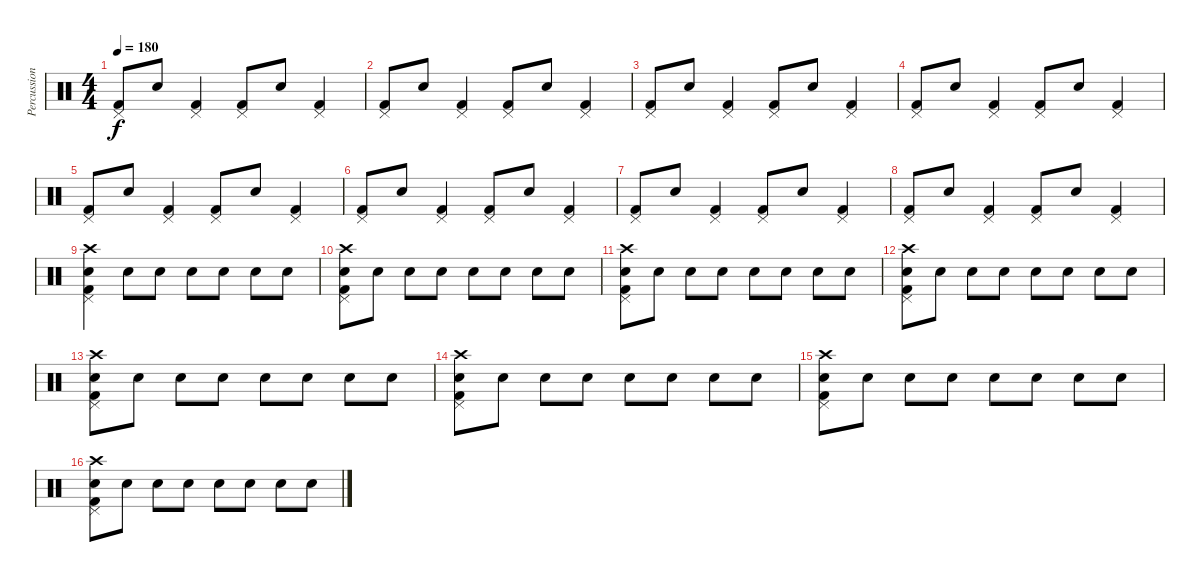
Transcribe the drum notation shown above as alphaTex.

\track ("Percussion" "Percussion") {instrument percussion}
\staff {score}
\articulation defaults
\ts (4 4)
\tempo 180
\clef neutral
\ks c
("Pedal Hi-Hat (hit)" "Kick (hit) 2").8{dy f} "Electric Snare (hit)".8 ("Pedal Hi-Hat (hit)" "Kick (hit) 2").4 ("Pedal Hi-Hat (hit)" "Kick (hit) 2").8 "Electric Snare (hit)".8 ("Pedal Hi-Hat (hit)" "Kick (hit) 2").4 |
("Pedal Hi-Hat (hit)" "Kick (hit) 2").8 "Electric Snare (hit)".8 ("Pedal Hi-Hat (hit)" "Kick (hit) 2").4 ("Pedal Hi-Hat (hit)" "Kick (hit) 2").8 "Electric Snare (hit)".8 ("Pedal Hi-Hat (hit)" "Kick (hit) 2").4 |
("Pedal Hi-Hat (hit)" "Kick (hit) 2").8 "Electric Snare (hit)".8 ("Pedal Hi-Hat (hit)" "Kick (hit) 2").4 ("Pedal Hi-Hat (hit)" "Kick (hit) 2").8 "Electric Snare (hit)".8 ("Pedal Hi-Hat (hit)" "Kick (hit) 2").4 |
("Pedal Hi-Hat (hit)" "Kick (hit) 2").8 "Electric Snare (hit)".8 ("Pedal Hi-Hat (hit)" "Kick (hit) 2").4 ("Pedal Hi-Hat (hit)" "Kick (hit) 2").8 "Electric Snare (hit)".8 ("Pedal Hi-Hat (hit)" "Kick (hit) 2").4 |
("Pedal Hi-Hat (hit)" "Kick (hit) 2").8 "Electric Snare (hit)".8 ("Pedal Hi-Hat (hit)" "Kick (hit) 2").4 ("Pedal Hi-Hat (hit)" "Kick (hit) 2").8 "Electric Snare (hit)".8 ("Pedal Hi-Hat (hit)" "Kick (hit) 2").4 |
("Pedal Hi-Hat (hit)" "Kick (hit) 2").8 "Electric Snare (hit)".8 ("Pedal Hi-Hat (hit)" "Kick (hit) 2").4 ("Pedal Hi-Hat (hit)" "Kick (hit) 2").8 "Electric Snare (hit)".8 ("Pedal Hi-Hat (hit)" "Kick (hit) 2").4 |
("Pedal Hi-Hat (hit)" "Kick (hit) 2").8 "Electric Snare (hit)".8 ("Pedal Hi-Hat (hit)" "Kick (hit) 2").4 ("Pedal Hi-Hat (hit)" "Kick (hit) 2").8 "Electric Snare (hit)".8 ("Pedal Hi-Hat (hit)" "Kick (hit) 2").4 |
("Pedal Hi-Hat (hit)" "Kick (hit) 2").8 "Electric Snare (hit)".8 ("Pedal Hi-Hat (hit)" "Kick (hit) 2").4 ("Pedal Hi-Hat (hit)" "Kick (hit) 2").8 "Electric Snare (hit)".8 ("Pedal Hi-Hat (hit)" "Kick (hit) 2").4 |
("Crash high (hit)" "Pedal Hi-Hat (hit)" "Electric Snare (hit)" "Kick (hit) 2").4 "Electric Snare (hit)".8 "Electric Snare (hit)".8 "Electric Snare (hit)".8 "Electric Snare (hit)".8 "Electric Snare (hit)".8 "Electric Snare (hit)".8 |
("Crash high (hit)" "Pedal Hi-Hat (hit)" "Electric Snare (hit)" "Kick (hit) 2").8 "Electric Snare (hit)".8 "Electric Snare (hit)".8 "Electric Snare (hit)".8 "Electric Snare (hit)".8 "Electric Snare (hit)".8 "Electric Snare (hit)".8 "Electric Snare (hit)".8 |
("Crash high (hit)" "Pedal Hi-Hat (hit)" "Electric Snare (hit)" "Kick (hit) 2").8 "Electric Snare (hit)".8 "Electric Snare (hit)".8 "Electric Snare (hit)".8 "Electric Snare (hit)".8 "Electric Snare (hit)".8 "Electric Snare (hit)".8 "Electric Snare (hit)".8 |
("Crash high (hit)" "Pedal Hi-Hat (hit)" "Electric Snare (hit)" "Kick (hit) 2").8 "Electric Snare (hit)".8 "Electric Snare (hit)".8 "Electric Snare (hit)".8 "Electric Snare (hit)".8 "Electric Snare (hit)".8 "Electric Snare (hit)".8 "Electric Snare (hit)".8 |
("Crash high (hit)" "Pedal Hi-Hat (hit)" "Electric Snare (hit)" "Kick (hit) 2").8 "Electric Snare (hit)".8 "Electric Snare (hit)".8 "Electric Snare (hit)".8 "Electric Snare (hit)".8 "Electric Snare (hit)".8 "Electric Snare (hit)".8 "Electric Snare (hit)".8 |
("Crash high (hit)" "Pedal Hi-Hat (hit)" "Electric Snare (hit)" "Kick (hit) 2").8 "Electric Snare (hit)".8 "Electric Snare (hit)".8 "Electric Snare (hit)".8 "Electric Snare (hit)".8 "Electric Snare (hit)".8 "Electric Snare (hit)".8 "Electric Snare (hit)".8 |
("Crash high (hit)" "Pedal Hi-Hat (hit)" "Electric Snare (hit)" "Kick (hit) 2").8 "Electric Snare (hit)".8 "Electric Snare (hit)".8 "Electric Snare (hit)".8 "Electric Snare (hit)".8 "Electric Snare (hit)".8 "Electric Snare (hit)".8 "Electric Snare (hit)".8 |
("Crash high (hit)" "Pedal Hi-Hat (hit)" "Electric Snare (hit)" "Kick (hit) 2").8 "Electric Snare (hit)".8 "Electric Snare (hit)".8 "Electric Snare (hit)".8 "Electric Snare (hit)".8 "Electric Snare (hit)".8 "Electric Snare (hit)".8 "Electric Snare (hit)".8
